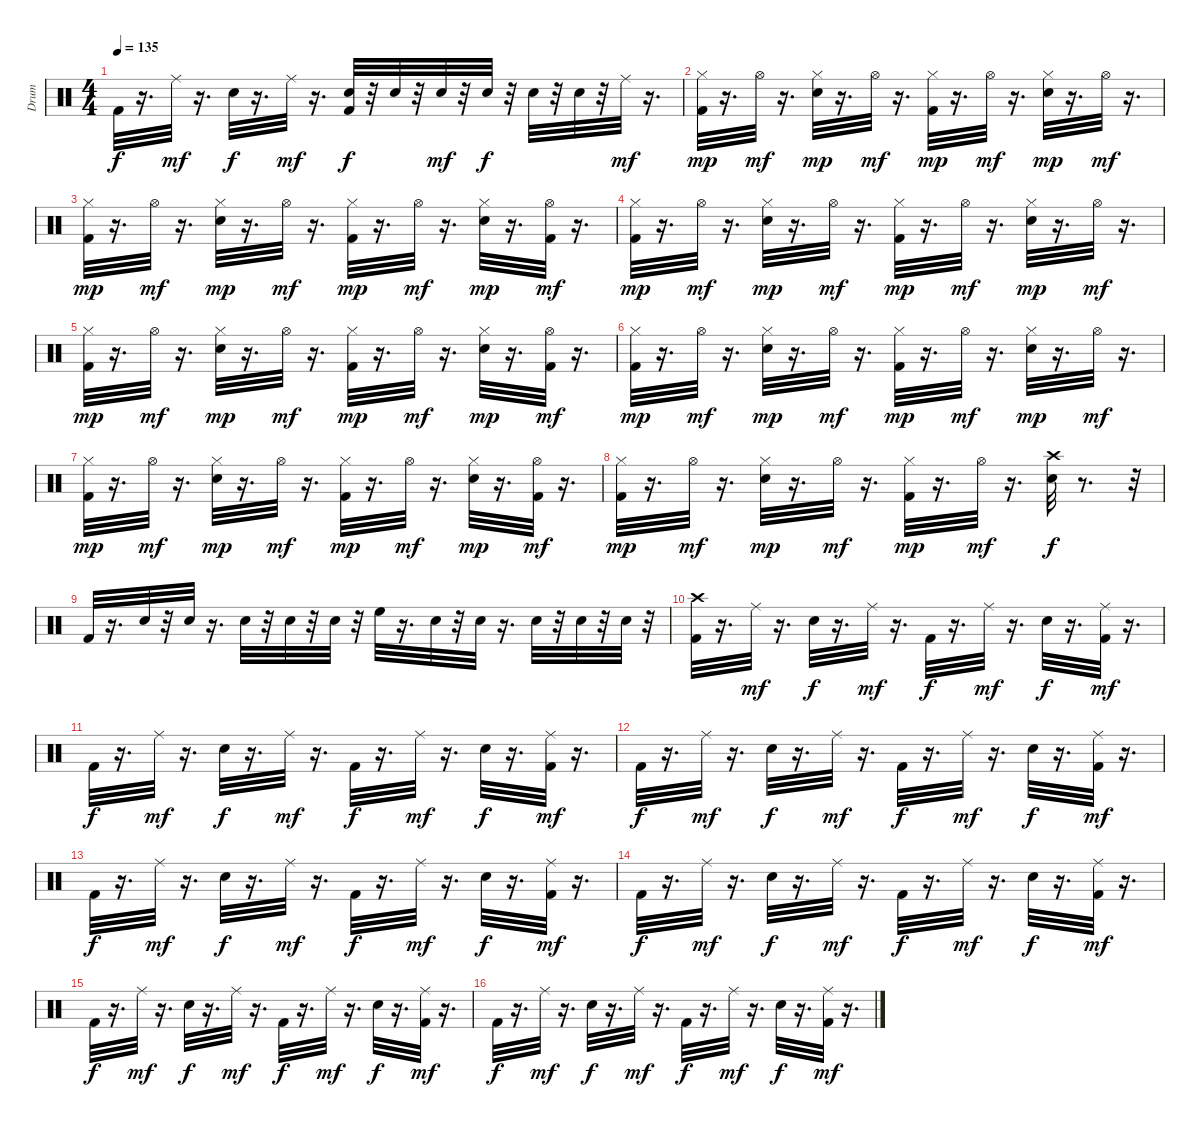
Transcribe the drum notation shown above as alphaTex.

\track ("Drum" "Drum") {instrument percussion}
\staff {score}
\articulation defaults
\ts (4 4)
\tempo 135
\clef neutral
\ks c "Kick (hit) 2".32{dy f}
r.16{d} "Ride (middle)".32{dy mf} r.16{d} "Electric Snare (hit)".32{dy f} r.16{d} "Ride (middle)".32{dy mf} r.16{d} ("Kick (hit) 2" "Electric Snare (hit)").32{dy f} r.32 "Electric Snare (hit)".32 r.32 "Electric Snare (hit)".32{dy mf} r.32 "Electric Snare (hit)".32{dy f} r.32 "Electric Snare (hit)".32 r.32 "Electric Snare (hit)".32 r.32 "Ride (middle)".32{dy mf} r.16{d} |
("Hi-Hat (closed)" "Kick (hit) 2").32{dy mp} r.16{d} "Hi-Hat (open)".32{dy mf} r.16{d} ("Hi-Hat (closed)" "Electric Snare (hit)").32{dy mp} r.16{d} "Hi-Hat (open)".32{dy mf} r.16{d} ("Hi-Hat (closed)" "Kick (hit) 2").32{dy mp} r.16{d} "Hi-Hat (open)".32{dy mf} r.16{d} ("Hi-Hat (closed)" "Electric Snare (hit)").32{dy mp} r.16{d} "Hi-Hat (open)".32{dy mf} r.16{d} |
("Hi-Hat (closed)" "Kick (hit) 2").32{dy mp} r.16{d} "Hi-Hat (open)".32{dy mf} r.16{d} ("Hi-Hat (closed)" "Electric Snare (hit)").32{dy mp} r.16{d} "Hi-Hat (open)".32{dy mf} r.16{d} ("Hi-Hat (closed)" "Kick (hit) 2").32{dy mp} r.16{d} "Hi-Hat (open)".32{dy mf} r.16{d} ("Hi-Hat (closed)" "Electric Snare (hit)").32{dy mp} r.16{d} ("Hi-Hat (open)" "Kick (hit) 2").32{dy mf} r.16{d} |
("Hi-Hat (closed)" "Kick (hit) 2").32{dy mp} r.16{d} "Hi-Hat (open)".32{dy mf} r.16{d} ("Hi-Hat (closed)" "Electric Snare (hit)").32{dy mp} r.16{d} "Hi-Hat (open)".32{dy mf} r.16{d} ("Hi-Hat (closed)" "Kick (hit) 2").32{dy mp} r.16{d} "Hi-Hat (open)".32{dy mf} r.16{d} ("Hi-Hat (closed)" "Electric Snare (hit)").32{dy mp} r.16{d} "Hi-Hat (open)".32{dy mf} r.16{d} |
("Hi-Hat (closed)" "Kick (hit) 2").32{dy mp} r.16{d} "Hi-Hat (open)".32{dy mf} r.16{d} ("Hi-Hat (closed)" "Electric Snare (hit)").32{dy mp} r.16{d} "Hi-Hat (open)".32{dy mf} r.16{d} ("Hi-Hat (closed)" "Kick (hit) 2").32{dy mp} r.16{d} "Hi-Hat (open)".32{dy mf} r.16{d} ("Hi-Hat (closed)" "Electric Snare (hit)").32{dy mp} r.16{d} ("Hi-Hat (open)" "Kick (hit) 2").32{dy mf} r.16{d} |
("Hi-Hat (closed)" "Kick (hit) 2").32{dy mp} r.16{d} "Hi-Hat (open)".32{dy mf} r.16{d} ("Hi-Hat (closed)" "Electric Snare (hit)").32{dy mp} r.16{d} "Hi-Hat (open)".32{dy mf} r.16{d} ("Hi-Hat (closed)" "Kick (hit) 2").32{dy mp} r.16{d} "Hi-Hat (open)".32{dy mf} r.16{d} ("Hi-Hat (closed)" "Electric Snare (hit)").32{dy mp} r.16{d} "Hi-Hat (open)".32{dy mf} r.16{d} |
("Hi-Hat (closed)" "Kick (hit) 2").32{dy mp} r.16{d} "Hi-Hat (open)".32{dy mf} r.16{d} ("Hi-Hat (closed)" "Electric Snare (hit)").32{dy mp} r.16{d} "Hi-Hat (open)".32{dy mf} r.16{d} ("Hi-Hat (closed)" "Kick (hit) 2").32{dy mp} r.16{d} "Hi-Hat (open)".32{dy mf} r.16{d} ("Hi-Hat (closed)" "Electric Snare (hit)").32{dy mp} r.16{d} ("Hi-Hat (open)" "Kick (hit) 2").32{dy mf} r.16{d} |
("Hi-Hat (closed)" "Kick (hit) 2").32{dy mp} r.16{d} "Hi-Hat (open)".32{dy mf} r.16{d} ("Hi-Hat (closed)" "Electric Snare (hit)").32{dy mp} r.16{d} "Hi-Hat (open)".32{dy mf} r.16{d} ("Hi-Hat (closed)" "Kick (hit) 2").32{dy mp} r.16{d} "Hi-Hat (open)".32{dy mf} r.16{d} ("Electric Snare (hit)" "Crash high (hit)").32{dy f} r.8{d} r.32 |
"Kick (hit) 2".32 r.16{d} "Electric Snare (hit)".32 r.32 "Electric Snare (hit)".32 r.16{d} "Electric Snare (hit)".32 r.32 "Electric Snare (hit)".32 r.32 "Electric Snare (hit)".32 r.32 "High Floor Tom (hit)".32 r.16{d} "Electric Snare (hit)".32 r.32 "Electric Snare (hit)".32 r.16{d} "Electric Snare (hit)".32 r.32 "Electric Snare (hit)".32 r.32 "Electric Snare (hit)".32 r.32 |
("Crash high (hit)" "Kick (hit) 2").32 r.16{d} "Ride (middle)".32{dy mf} r.16{d} "Electric Snare (hit)".32{dy f} r.16{d} "Ride (middle)".32{dy mf} r.16{d} "Kick (hit) 2".32{dy f} r.16{d} "Ride (middle)".32{dy mf} r.16{d} "Electric Snare (hit)".32{dy f} r.16{d} ("Ride (middle)" "Kick (hit) 2").32{dy mf} r.16{d} |
"Kick (hit) 2".32{dy f} r.16{d} "Ride (middle)".32{dy mf} r.16{d} "Electric Snare (hit)".32{dy f} r.16{d} "Ride (middle)".32{dy mf} r.16{d} "Kick (hit) 2".32{dy f} r.16{d} "Ride (middle)".32{dy mf} r.16{d} "Electric Snare (hit)".32{dy f} r.16{d} ("Ride (middle)" "Kick (hit) 2").32{dy mf} r.16{d} |
"Kick (hit) 2".32{dy f} r.16{d} "Ride (middle)".32{dy mf} r.16{d} "Electric Snare (hit)".32{dy f} r.16{d} "Ride (middle)".32{dy mf} r.16{d} "Kick (hit) 2".32{dy f} r.16{d} "Ride (middle)".32{dy mf} r.16{d} "Electric Snare (hit)".32{dy f} r.16{d} ("Ride (middle)" "Kick (hit) 2").32{dy mf} r.16{d} |
"Kick (hit) 2".32{dy f} r.16{d} "Ride (middle)".32{dy mf} r.16{d} "Electric Snare (hit)".32{dy f} r.16{d} "Ride (middle)".32{dy mf} r.16{d} "Kick (hit) 2".32{dy f} r.16{d} "Ride (middle)".32{dy mf} r.16{d} "Electric Snare (hit)".32{dy f} r.16{d} ("Ride (middle)" "Kick (hit) 2").32{dy mf} r.16{d} |
"Kick (hit) 2".32{dy f} r.16{d} "Ride (middle)".32{dy mf} r.16{d} "Electric Snare (hit)".32{dy f} r.16{d} "Ride (middle)".32{dy mf} r.16{d} "Kick (hit) 2".32{dy f} r.16{d} "Ride (middle)".32{dy mf} r.16{d} "Electric Snare (hit)".32{dy f} r.16{d} ("Ride (middle)" "Kick (hit) 2").32{dy mf} r.16{d} |
"Kick (hit) 2".32{dy f} r.16{d} "Ride (middle)".32{dy mf} r.16{d} "Electric Snare (hit)".32{dy f} r.16{d} "Ride (middle)".32{dy mf} r.16{d} "Kick (hit) 2".32{dy f} r.16{d} "Ride (middle)".32{dy mf} r.16{d} "Electric Snare (hit)".32{dy f} r.16{d} ("Ride (middle)" "Kick (hit) 2").32{dy mf} r.16{d} |
"Kick (hit) 2".32{dy f} r.16{d} "Ride (middle)".32{dy mf} r.16{d} "Electric Snare (hit)".32{dy f} r.16{d} "Ride (middle)".32{dy mf} r.16{d} "Kick (hit) 2".32{dy f} r.16{d} "Ride (middle)".32{dy mf} r.16{d} "Electric Snare (hit)".32{dy f} r.16{d} ("Ride (middle)" "Kick (hit) 2").32{dy mf} r.16{d}
